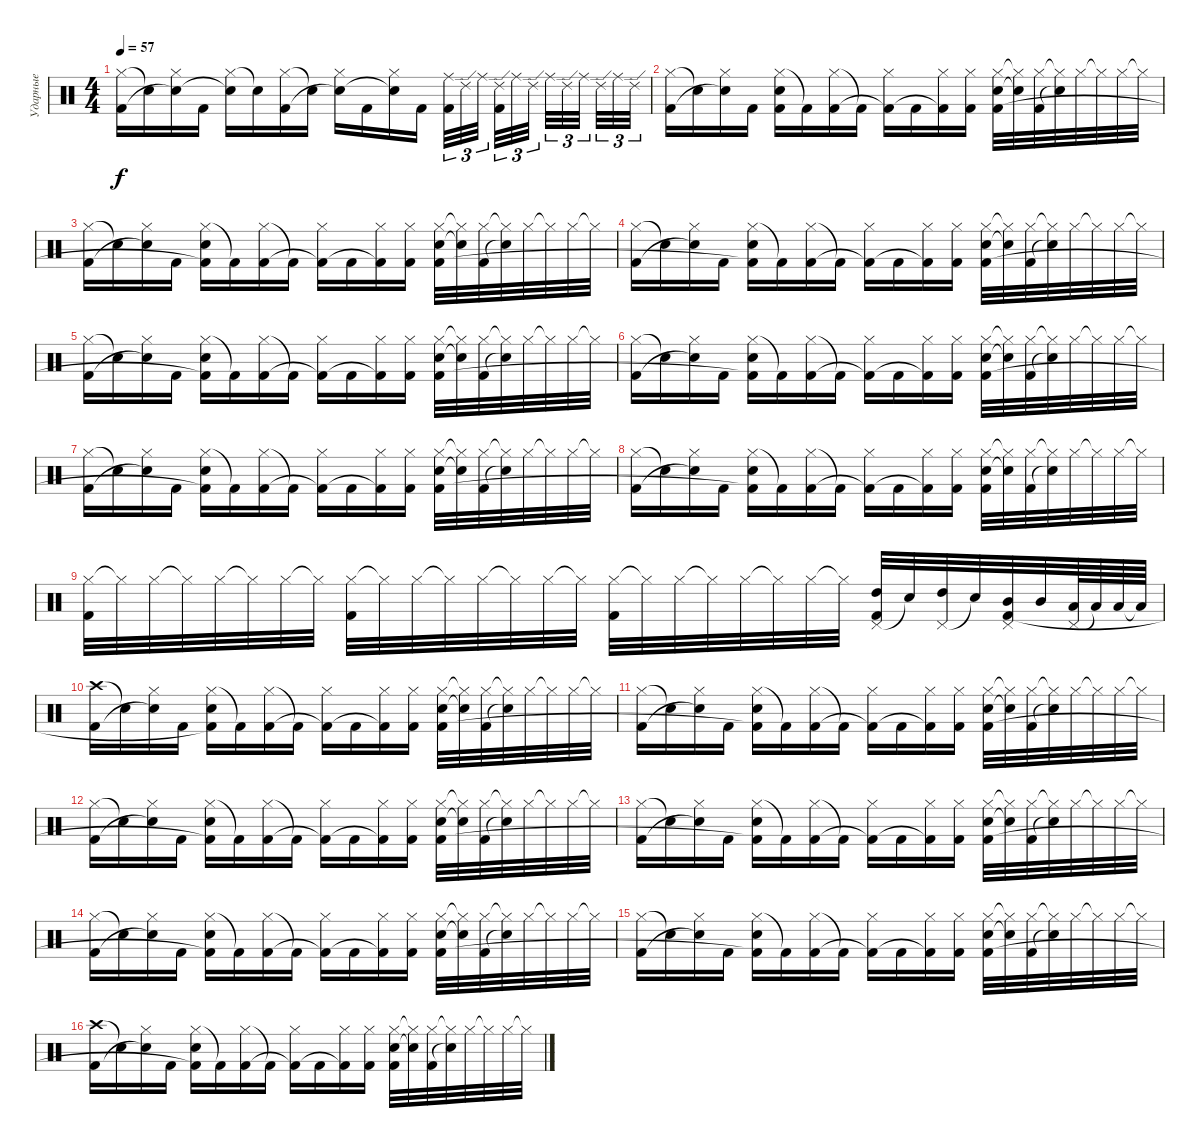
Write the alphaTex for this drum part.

\track ("Ударные" "Ударные") {instrument percussion}
\staff {score}
\articulation defaults
\ts (4 4)
\tempo 57
\clef neutral
\ks c
("Hi-Hat (closed)" "Kick (hit) 2").16{dy f} "Snare (hit)"{t}.16 ("Hi-Hat (closed)" "Snare (hit)"{t}).16 "Kick (hit) 2".16 ("Hi-Hat (closed)" "Snare (hit)"{t}).16 "Snare (hit)"{t}.16 ("Hi-Hat (closed)" "Kick (hit) 2").16 "Snare (hit)"{t}.16 ("Hi-Hat (closed)" "Snare (hit)"{t}).16 "Kick (hit) 2".16 ("Hi-Hat (closed)" "Snare (hit)"{t}).16 "Kick (hit) 2".16 ("Ride (middle)" "Kick (hit) 2").32{tu (3 2)} "Ride (edge) 2".32{tu (3 2)} "Ride (middle)".32{tu (3 2)} ("Ride (edge) 2" "Kick (hit) 2").32{tu (3 2)} "Ride (middle)".32{tu (3 2)} "Ride (edge) 2".32{tu (3 2)} "Ride (middle)".32{tu (3 2)} "Ride (edge) 2".32{tu (3 2)} "Ride (middle)".32{tu (3 2)} "Ride (edge) 2".32{tu (3 2)} "Ride (middle)".32{tu (3 2)} "Ride (edge) 2".32{tu (3 2)} |
("Hi-Hat (closed)" "Kick (hit) 2").16 "Snare (hit)"{t}.16 ("Hi-Hat (closed)" "Snare (hit)"{t}).16 "Kick (hit) 2".16 ("Hi-Hat (closed)" "Snare (hit) 2" "Kick (hit) 2").16 "Kick (hit) 2"{t}.16 ("Hi-Hat (closed)" "Kick (hit) 2").16 "Kick (hit) 2"{t}.16 ("Hi-Hat (closed)" "Kick (hit) 2"{t}).16 "Kick (hit) 2".16 ("Hi-Hat (closed)" "Kick (hit) 2"{t}).16 ("Hi-Hat (closed)" "Kick (hit) 2").16 ("Hi-Hat (closed)" "Snare (hit) 2" "Kick (hit) 2").32 ("Hi-Hat (closed)"{t} "Snare (hit)"{t}).32 ("Hi-Hat (closed)" "Kick (hit) 2").32 ("Hi-Hat (closed)"{t} "Snare (hit)"{t}).32 "Hi-Hat (closed)".32 "Hi-Hat (closed)"{t}.32 "Hi-Hat (closed)".32 "Hi-Hat (closed)"{t}.32 |
("Hi-Hat (closed)" "Kick (hit) 2").16 "Snare (hit)"{t}.16 ("Hi-Hat (closed)" "Snare (hit)"{t}).16 "Kick (hit) 2".16 ("Hi-Hat (closed)" "Snare (hit) 2" "Kick (hit) 2"{t}).16 "Kick (hit) 2"{t}.16 ("Hi-Hat (closed)" "Kick (hit) 2").16 "Kick (hit) 2"{t}.16 ("Hi-Hat (closed)" "Kick (hit) 2"{t}).16 "Kick (hit) 2".16 ("Hi-Hat (closed)" "Kick (hit) 2"{t}).16 ("Hi-Hat (closed)" "Kick (hit) 2").16 ("Hi-Hat (closed)" "Snare (hit) 2" "Kick (hit) 2").32 ("Hi-Hat (closed)"{t} "Snare (hit)"{t}).32 ("Hi-Hat (closed)" "Kick (hit) 2").32 ("Hi-Hat (closed)"{t} "Snare (hit)"{t}).32 "Hi-Hat (closed)".32 "Hi-Hat (closed)"{t}.32 "Hi-Hat (closed)".32 "Hi-Hat (closed)"{t}.32 |
("Hi-Hat (closed)" "Kick (hit) 2").16 "Snare (hit)"{t}.16 ("Hi-Hat (closed)" "Snare (hit)"{t}).16 "Kick (hit) 2".16 ("Hi-Hat (closed)" "Snare (hit) 2" "Kick (hit) 2"{t}).16 "Kick (hit) 2"{t}.16 ("Hi-Hat (closed)" "Kick (hit) 2").16 "Kick (hit) 2"{t}.16 ("Hi-Hat (closed)" "Kick (hit) 2"{t}).16 "Kick (hit) 2".16 ("Hi-Hat (closed)" "Kick (hit) 2"{t}).16 ("Hi-Hat (closed)" "Kick (hit) 2").16 ("Hi-Hat (closed)" "Snare (hit) 2" "Kick (hit) 2").32 ("Hi-Hat (closed)"{t} "Snare (hit)"{t}).32 ("Hi-Hat (closed)" "Kick (hit) 2").32 ("Hi-Hat (closed)"{t} "Snare (hit)"{t}).32 "Hi-Hat (closed)".32 "Hi-Hat (closed)"{t}.32 "Hi-Hat (closed)".32 "Hi-Hat (closed)"{t}.32 |
("Hi-Hat (closed)" "Kick (hit) 2").16 "Snare (hit)"{t}.16 ("Hi-Hat (closed)" "Snare (hit)"{t}).16 "Kick (hit) 2".16 ("Hi-Hat (closed)" "Snare (hit) 2" "Kick (hit) 2"{t}).16 "Kick (hit) 2"{t}.16 ("Hi-Hat (closed)" "Kick (hit) 2").16 "Kick (hit) 2"{t}.16 ("Hi-Hat (closed)" "Kick (hit) 2"{t}).16 "Kick (hit) 2".16 ("Hi-Hat (closed)" "Kick (hit) 2"{t}).16 ("Hi-Hat (closed)" "Kick (hit) 2").16 ("Hi-Hat (closed)" "Snare (hit) 2" "Kick (hit) 2").32 ("Hi-Hat (closed)"{t} "Snare (hit)"{t}).32 ("Hi-Hat (closed)" "Kick (hit) 2").32 ("Hi-Hat (closed)"{t} "Snare (hit)"{t}).32 "Hi-Hat (closed)".32 "Hi-Hat (closed)"{t}.32 "Hi-Hat (closed)".32 "Hi-Hat (closed)"{t}.32 |
("Hi-Hat (closed)" "Kick (hit) 2").16 "Snare (hit)"{t}.16 ("Hi-Hat (closed)" "Snare (hit)"{t}).16 "Kick (hit) 2".16 ("Hi-Hat (closed)" "Snare (hit) 2" "Kick (hit) 2"{t}).16 "Kick (hit) 2"{t}.16 ("Hi-Hat (closed)" "Kick (hit) 2").16 "Kick (hit) 2"{t}.16 ("Hi-Hat (closed)" "Kick (hit) 2"{t}).16 "Kick (hit) 2".16 ("Hi-Hat (closed)" "Kick (hit) 2"{t}).16 ("Hi-Hat (closed)" "Kick (hit) 2").16 ("Hi-Hat (closed)" "Snare (hit) 2" "Kick (hit) 2").32 ("Hi-Hat (closed)"{t} "Snare (hit)"{t}).32 ("Hi-Hat (closed)" "Kick (hit) 2").32 ("Hi-Hat (closed)"{t} "Snare (hit)"{t}).32 "Hi-Hat (closed)".32 "Hi-Hat (closed)"{t}.32 "Hi-Hat (closed)".32 "Hi-Hat (closed)"{t}.32 |
("Hi-Hat (closed)" "Kick (hit) 2").16 "Snare (hit)"{t}.16 ("Hi-Hat (closed)" "Snare (hit)"{t}).16 "Kick (hit) 2".16 ("Hi-Hat (closed)" "Snare (hit) 2" "Kick (hit) 2"{t}).16 "Kick (hit) 2"{t}.16 ("Hi-Hat (closed)" "Kick (hit) 2").16 "Kick (hit) 2"{t}.16 ("Hi-Hat (closed)" "Kick (hit) 2"{t}).16 "Kick (hit) 2".16 ("Hi-Hat (closed)" "Kick (hit) 2"{t}).16 ("Hi-Hat (closed)" "Kick (hit) 2").16 ("Hi-Hat (closed)" "Snare (hit) 2" "Kick (hit) 2").32 ("Hi-Hat (closed)"{t} "Snare (hit)"{t}).32 ("Hi-Hat (closed)" "Kick (hit) 2").32 ("Hi-Hat (closed)"{t} "Snare (hit)"{t}).32 "Hi-Hat (closed)".32 "Hi-Hat (closed)"{t}.32 "Hi-Hat (closed)".32 "Hi-Hat (closed)"{t}.32 |
("Hi-Hat (closed)" "Kick (hit) 2").16 "Snare (hit)"{t}.16 ("Hi-Hat (closed)" "Snare (hit)"{t}).16 "Kick (hit) 2".16 ("Hi-Hat (closed)" "Snare (hit) 2" "Kick (hit) 2"{t}).16 "Kick (hit) 2"{t}.16 ("Hi-Hat (closed)" "Kick (hit) 2").16 "Kick (hit) 2"{t}.16 ("Hi-Hat (closed)" "Kick (hit) 2"{t}).16 "Kick (hit) 2".16 ("Hi-Hat (closed)" "Kick (hit) 2"{t}).16 ("Hi-Hat (closed)" "Kick (hit) 2").16 ("Hi-Hat (closed)" "Snare (hit) 2" "Kick (hit) 2").32 ("Hi-Hat (closed)"{t} "Snare (hit)"{t}).32 ("Hi-Hat (closed)" "Kick (hit) 2").32 ("Hi-Hat (closed)"{t} "Snare (hit)"{t}).32 "Hi-Hat (closed)".32 "Hi-Hat (closed)"{t}.32 "Hi-Hat (closed)".32 "Hi-Hat (closed)"{t}.32 |
("Hi-Hat (closed)" "Kick (hit) 2").32 "Hi-Hat (closed)"{t}.32 "Hi-Hat (closed)".32 "Hi-Hat (closed)"{t}.32 "Hi-Hat (closed)".32 "Hi-Hat (closed)"{t}.32 "Hi-Hat (closed)".32 "Hi-Hat (closed)"{t}.32 ("Hi-Hat (closed)" "Kick (hit) 2").32 "Hi-Hat (closed)"{t}.32 "Hi-Hat (closed)".32 "Hi-Hat (closed)"{t}.32 "Hi-Hat (closed)".32 "Hi-Hat (closed)"{t}.32 "Hi-Hat (closed)".32 "Hi-Hat (closed)"{t}.32 ("Hi-Hat (closed)" "Kick (hit) 2").32 "Hi-Hat (closed)"{t}.32 "Hi-Hat (closed)".32 "Hi-Hat (closed)"{t}.32 "Hi-Hat (closed)".32 "Hi-Hat (closed)"{t}.32 "Hi-Hat (closed)".32 "Hi-Hat (closed)"{t}.32 ("Pedal Hi-Hat (hit)" "High Tom (hit)" "Kick (hit) 2").32 "Snare (hit)"{t}.32 ("Pedal Hi-Hat (hit)" "High Tom (hit)").32 "Snare (hit)"{t}.32 ("Pedal Hi-Hat (hit)" "Mid Tom (hit)" "Kick (hit) 2").32 "Mid Tom (hit)".32 ("Pedal Hi-Hat (hit)" "Low Tom (hit)").64 "Low Tom (hit)"{t}.64 "Low Tom (hit)".64 "Low Tom (hit)"{t}.64 |
("Crash high (hit)" "Kick (hit) 2").16 "Snare (hit)"{t}.16 ("Hi-Hat (closed)" "Snare (hit)"{t}).16 "Kick (hit) 2".16 ("Hi-Hat (closed)" "Snare (hit) 2" "Kick (hit) 2"{t}).16 "Kick (hit) 2"{t}.16 ("Hi-Hat (closed)" "Kick (hit) 2").16 "Kick (hit) 2"{t}.16 ("Hi-Hat (closed)" "Kick (hit) 2"{t}).16 "Kick (hit) 2".16 ("Hi-Hat (closed)" "Kick (hit) 2"{t}).16 ("Hi-Hat (closed)" "Kick (hit) 2").16 ("Hi-Hat (closed)" "Snare (hit) 2" "Kick (hit) 2").32 ("Hi-Hat (closed)"{t} "Snare (hit)"{t}).32 ("Hi-Hat (closed)" "Kick (hit) 2").32 ("Hi-Hat (closed)"{t} "Snare (hit)"{t}).32 "Hi-Hat (closed)".32 "Hi-Hat (closed)"{t}.32 "Hi-Hat (closed)".32 "Hi-Hat (closed)"{t}.32 |
("Hi-Hat (closed)" "Kick (hit) 2").16 "Snare (hit)"{t}.16 ("Hi-Hat (closed)" "Snare (hit)"{t}).16 "Kick (hit) 2".16 ("Hi-Hat (closed)" "Snare (hit) 2" "Kick (hit) 2"{t}).16 "Kick (hit) 2"{t}.16 ("Hi-Hat (closed)" "Kick (hit) 2").16 "Kick (hit) 2"{t}.16 ("Hi-Hat (closed)" "Kick (hit) 2"{t}).16 "Kick (hit) 2".16 ("Hi-Hat (closed)" "Kick (hit) 2"{t}).16 ("Hi-Hat (closed)" "Kick (hit) 2").16 ("Hi-Hat (closed)" "Snare (hit) 2" "Kick (hit) 2").32 ("Hi-Hat (closed)"{t} "Snare (hit)"{t}).32 ("Hi-Hat (closed)" "Kick (hit) 2").32 ("Hi-Hat (closed)"{t} "Snare (hit)"{t}).32 "Hi-Hat (closed)".32 "Hi-Hat (closed)"{t}.32 "Hi-Hat (closed)".32 "Hi-Hat (closed)"{t}.32 |
("Hi-Hat (closed)" "Kick (hit) 2").16 "Snare (hit)"{t}.16 ("Hi-Hat (closed)" "Snare (hit)"{t}).16 "Kick (hit) 2".16 ("Hi-Hat (closed)" "Snare (hit) 2" "Kick (hit) 2"{t}).16 "Kick (hit) 2"{t}.16 ("Hi-Hat (closed)" "Kick (hit) 2").16 "Kick (hit) 2"{t}.16 ("Hi-Hat (closed)" "Kick (hit) 2"{t}).16 "Kick (hit) 2".16 ("Hi-Hat (closed)" "Kick (hit) 2"{t}).16 ("Hi-Hat (closed)" "Kick (hit) 2").16 ("Hi-Hat (closed)" "Snare (hit) 2" "Kick (hit) 2").32 ("Hi-Hat (closed)"{t} "Snare (hit)"{t}).32 ("Hi-Hat (closed)" "Kick (hit) 2").32 ("Hi-Hat (closed)"{t} "Snare (hit)"{t}).32 "Hi-Hat (closed)".32 "Hi-Hat (closed)"{t}.32 "Hi-Hat (closed)".32 "Hi-Hat (closed)"{t}.32 |
("Hi-Hat (closed)" "Kick (hit) 2").16 "Snare (hit)"{t}.16 ("Hi-Hat (closed)" "Snare (hit)"{t}).16 "Kick (hit) 2".16 ("Hi-Hat (closed)" "Snare (hit) 2" "Kick (hit) 2"{t}).16 "Kick (hit) 2"{t}.16 ("Hi-Hat (closed)" "Kick (hit) 2").16 "Kick (hit) 2"{t}.16 ("Hi-Hat (closed)" "Kick (hit) 2"{t}).16 "Kick (hit) 2".16 ("Hi-Hat (closed)" "Kick (hit) 2"{t}).16 ("Hi-Hat (closed)" "Kick (hit) 2").16 ("Hi-Hat (closed)" "Snare (hit) 2" "Kick (hit) 2").32 ("Hi-Hat (closed)"{t} "Snare (hit)"{t}).32 ("Hi-Hat (closed)" "Kick (hit) 2").32 ("Hi-Hat (closed)"{t} "Snare (hit)"{t}).32 "Hi-Hat (closed)".32 "Hi-Hat (closed)"{t}.32 "Hi-Hat (closed)".32 "Hi-Hat (closed)"{t}.32 |
("Hi-Hat (closed)" "Kick (hit) 2").16 "Snare (hit)"{t}.16 ("Hi-Hat (closed)" "Snare (hit)"{t}).16 "Kick (hit) 2".16 ("Hi-Hat (closed)" "Snare (hit) 2" "Kick (hit) 2"{t}).16 "Kick (hit) 2"{t}.16 ("Hi-Hat (closed)" "Kick (hit) 2").16 "Kick (hit) 2"{t}.16 ("Hi-Hat (closed)" "Kick (hit) 2"{t}).16 "Kick (hit) 2".16 ("Hi-Hat (closed)" "Kick (hit) 2"{t}).16 ("Hi-Hat (closed)" "Kick (hit) 2").16 ("Hi-Hat (closed)" "Snare (hit) 2" "Kick (hit) 2").32 ("Hi-Hat (closed)"{t} "Snare (hit)"{t}).32 ("Hi-Hat (closed)" "Kick (hit) 2").32 ("Hi-Hat (closed)"{t} "Snare (hit)"{t}).32 "Hi-Hat (closed)".32 "Hi-Hat (closed)"{t}.32 "Hi-Hat (closed)".32 "Hi-Hat (closed)"{t}.32 |
("Hi-Hat (closed)" "Kick (hit) 2").16 "Snare (hit)"{t}.16 ("Hi-Hat (closed)" "Snare (hit)"{t}).16 "Kick (hit) 2".16 ("Hi-Hat (closed)" "Snare (hit) 2" "Kick (hit) 2"{t}).16 "Kick (hit) 2"{t}.16 ("Hi-Hat (closed)" "Kick (hit) 2").16 "Kick (hit) 2"{t}.16 ("Hi-Hat (closed)" "Kick (hit) 2"{t}).16 "Kick (hit) 2".16 ("Hi-Hat (closed)" "Kick (hit) 2"{t}).16 ("Hi-Hat (closed)" "Kick (hit) 2").16 ("Hi-Hat (closed)" "Snare (hit) 2" "Kick (hit) 2").32 ("Hi-Hat (closed)"{t} "Snare (hit)"{t}).32 ("Hi-Hat (closed)" "Kick (hit) 2").32 ("Hi-Hat (closed)"{t} "Snare (hit)"{t}).32 "Hi-Hat (closed)".32 "Hi-Hat (closed)"{t}.32 "Hi-Hat (closed)".32 "Hi-Hat (closed)"{t}.32 |
("Crash high (hit)" "Kick (hit) 2").16 "Snare (hit)"{t}.16 ("Hi-Hat (closed)" "Snare (hit)"{t}).16 "Kick (hit) 2".16 ("Hi-Hat (closed)" "Snare (hit) 2" "Kick (hit) 2"{t}).16 "Kick (hit) 2"{t}.16 ("Hi-Hat (closed)" "Kick (hit) 2").16 "Kick (hit) 2"{t}.16 ("Hi-Hat (closed)" "Kick (hit) 2"{t}).16 "Kick (hit) 2".16 ("Hi-Hat (closed)" "Kick (hit) 2"{t}).16 ("Hi-Hat (closed)" "Kick (hit) 2").16 ("Hi-Hat (closed)" "Snare (hit) 2" "Kick (hit) 2").32 ("Hi-Hat (closed)"{t} "Snare (hit)"{t}).32 ("Hi-Hat (closed)" "Kick (hit) 2").32 ("Hi-Hat (closed)"{t} "Snare (hit)"{t}).32 "Hi-Hat (closed)".32 "Hi-Hat (closed)"{t}.32 "Hi-Hat (closed)".32 "Hi-Hat (closed)"{t}.32
